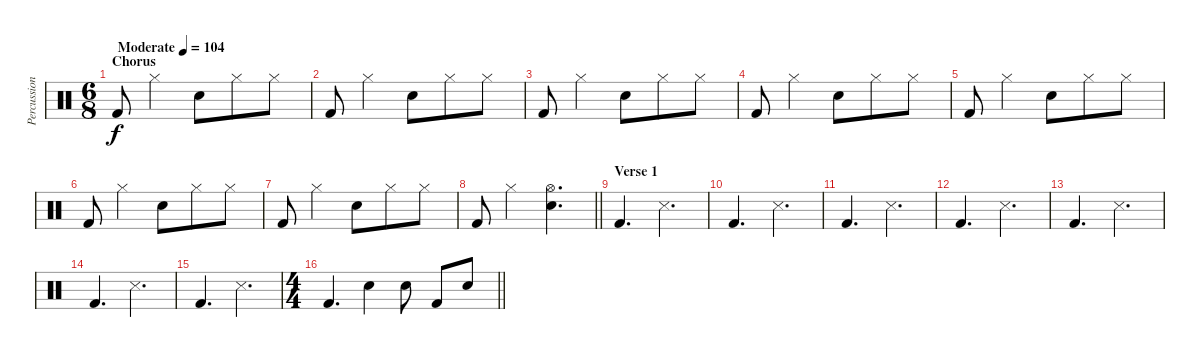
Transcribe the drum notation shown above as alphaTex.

\track ("Percussion" "Percussion") {instrument percussion}
\staff {score}
\articulation defaults
\ts (6 8)
\section ("" "Chorus")
\tempo (104 "Moderate")
\clef neutral
\ks c "Kick (hit) 2".8{dy f} "Hi-Hat (closed)".4 "Snare (hit) 2".8 "Hi-Hat (closed)".8 "Hi-Hat (closed)".8
|
"Kick (hit) 2".8 "Hi-Hat (closed)".4 "Snare (hit) 2".8 "Hi-Hat (closed)".8 "Hi-Hat (closed)".8 |
"Kick (hit) 2".8 "Hi-Hat (closed)".4 "Snare (hit) 2".8 "Hi-Hat (closed)".8 "Hi-Hat (closed)".8 |
"Kick (hit) 2".8 "Hi-Hat (closed)".4 "Snare (hit) 2".8 "Hi-Hat (closed)".8 "Hi-Hat (closed)".8 |
"Kick (hit) 2".8 "Hi-Hat (closed)".4 "Snare (hit) 2".8 "Hi-Hat (closed)".8 "Hi-Hat (closed)".8 |
"Kick (hit) 2".8 "Hi-Hat (closed)".4 "Snare (hit) 2".8 "Hi-Hat (closed)".8 "Hi-Hat (closed)".8 |
"Kick (hit) 2".8 "Hi-Hat (closed)".4 "Snare (hit) 2".8 "Hi-Hat (closed)".8 "Hi-Hat (closed)".8 |
\barLineRight lightlight "Kick (hit) 2".8 "Hi-Hat (closed)".4
("Hi-Hat (open)" "Snare (hit) 2").4{d} |
\section ("" "Verse 1")
"Kick (hit) 2".4{d} "Snare (side stick) 3".4{d} |
"Kick (hit) 2".4{d} "Snare (side stick) 3".4{d} |
"Kick (hit) 2".4{d} "Snare (side stick) 3".4{d} |
"Kick (hit) 2".4{d} "Snare (side stick) 3".4{d} |
"Kick (hit) 2".4{d} "Snare (side stick) 3".4{d} |
"Kick (hit) 2".4{d} "Snare (side stick) 3".4{d} |
"Kick (hit) 2".4{d} "Snare (side stick) 3".4{d} |
\ts (4 4)
\barLineRight lightlight "Kick (hit) 2".4{d} "Snare (hit) 2".4 "Snare (hit) 2".8 "Kick (hit) 2".8 "Snare (hit) 2".8
